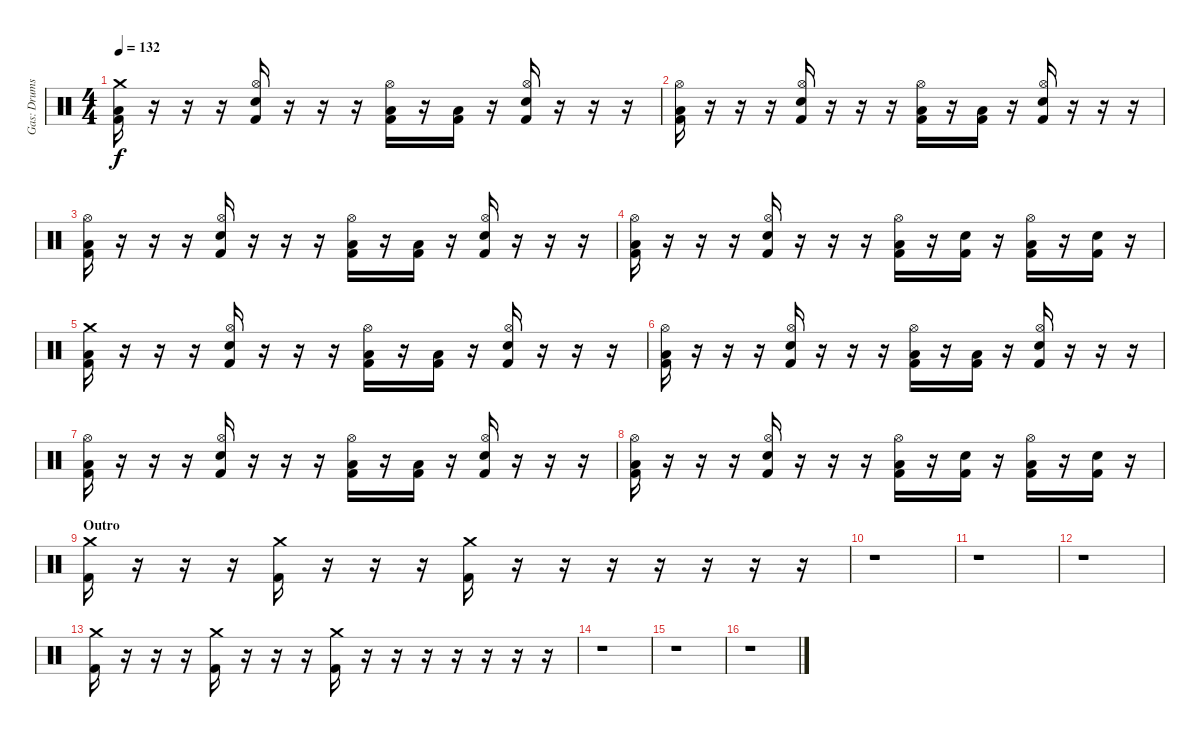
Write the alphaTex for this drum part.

\track ("Gas: Drums" "Gas: Drums") {instrument percussion}
\staff {score}
\articulation defaults
\ts (4 4)
\tempo 132
\clef neutral
\ks c
("Crash medium (hit)" "Low Tom (hit)" "Kick (hit) 2").16{dy f} r.16 r.16 r.16 ("Hi-Hat (open)" "Electric Snare (hit)" "Kick (hit) 2").16 r.16 r.16 r.16 ("Hi-Hat (open)" "Low Tom (hit)" "Kick (hit) 2").16 r.16 ("Low Tom (hit)" "Kick (hit) 2").16 r.16 ("Hi-Hat (open)" "Electric Snare (hit)" "Kick (hit) 2").16 r.16 r.16 r.16 |
("Hi-Hat (open)" "Low Tom (hit)" "Kick (hit) 2").16 r.16 r.16 r.16 ("Hi-Hat (open)" "Electric Snare (hit)" "Kick (hit) 2").16 r.16 r.16 r.16 ("Hi-Hat (open)" "Low Tom (hit)" "Kick (hit) 2").16 r.16 ("Low Tom (hit)" "Kick (hit) 2").16 r.16 ("Hi-Hat (open)" "Electric Snare (hit)" "Kick (hit) 2").16 r.16 r.16 r.16 |
("Hi-Hat (open)" "Low Tom (hit)" "Kick (hit) 2").16 r.16 r.16 r.16 ("Hi-Hat (open)" "Electric Snare (hit)" "Kick (hit) 2").16 r.16 r.16 r.16 ("Hi-Hat (open)" "Low Tom (hit)" "Kick (hit) 2").16 r.16 ("Low Tom (hit)" "Kick (hit) 2").16 r.16 ("Hi-Hat (open)" "Electric Snare (hit)" "Kick (hit) 2").16 r.16 r.16 r.16 |
("Hi-Hat (open)" "Low Tom (hit)" "Kick (hit) 2").16 r.16 r.16 r.16 ("Hi-Hat (open)" "Electric Snare (hit)" "Kick (hit) 2").16 r.16 r.16 r.16 ("Hi-Hat (open)" "Low Tom (hit)" "Kick (hit) 2").16 r.16 ("Electric Snare (hit)" "Kick (hit) 2").16 r.16 ("Hi-Hat (open)" "Low Tom (hit)" "Kick (hit) 2").16 r.16 ("Electric Snare (hit)" "Kick (hit) 2").16 r.16 |
("Crash medium (hit)" "Low Tom (hit)" "Kick (hit) 2").16 r.16 r.16 r.16 ("Hi-Hat (open)" "Electric Snare (hit)" "Kick (hit) 2").16 r.16 r.16 r.16 ("Hi-Hat (open)" "Low Tom (hit)" "Kick (hit) 2").16 r.16 ("Low Tom (hit)" "Kick (hit) 2").16 r.16 ("Hi-Hat (open)" "Electric Snare (hit)" "Kick (hit) 2").16 r.16 r.16 r.16 |
("Hi-Hat (open)" "Low Tom (hit)" "Kick (hit) 2").16 r.16 r.16 r.16 ("Hi-Hat (open)" "Electric Snare (hit)" "Kick (hit) 2").16 r.16 r.16 r.16 ("Hi-Hat (open)" "Low Tom (hit)" "Kick (hit) 2").16 r.16 ("Low Tom (hit)" "Kick (hit) 2").16 r.16 ("Hi-Hat (open)" "Electric Snare (hit)" "Kick (hit) 2").16 r.16 r.16 r.16 |
("Hi-Hat (open)" "Low Tom (hit)" "Kick (hit) 2").16 r.16 r.16 r.16 ("Hi-Hat (open)" "Electric Snare (hit)" "Kick (hit) 2").16 r.16 r.16 r.16 ("Hi-Hat (open)" "Low Tom (hit)" "Kick (hit) 2").16 r.16 ("Low Tom (hit)" "Kick (hit) 2").16 r.16 ("Hi-Hat (open)" "Electric Snare (hit)" "Kick (hit) 2").16 r.16 r.16 r.16 |
("Hi-Hat (open)" "Low Tom (hit)" "Kick (hit) 2").16 r.16 r.16 r.16 ("Hi-Hat (open)" "Electric Snare (hit)" "Kick (hit) 2").16 r.16 r.16 r.16 ("Hi-Hat (open)" "Low Tom (hit)" "Kick (hit) 2").16 r.16 ("Electric Snare (hit)" "Kick (hit) 2").16 r.16 ("Hi-Hat (open)" "Low Tom (hit)" "Kick (hit) 2").16 r.16 ("Electric Snare (hit)" "Kick (hit) 2").16 r.16 |
\section ("" "Outro")
("Crash medium (hit)" "Kick (hit) 2").16 r.16 r.16 r.16 ("Crash medium (hit)" "Kick (hit) 2").16 r.16 r.16 r.16 ("Crash medium (hit)" "Kick (hit) 2").16 r.16 r.16 r.16 r.16 r.16 r.16 r.16 |
r.1 |
r.1 |
r.1 |
("Crash medium (hit)" "Kick (hit) 2").16 r.16 r.16 r.16 ("Crash medium (hit)" "Kick (hit) 2").16 r.16 r.16 r.16 ("Crash medium (hit)" "Kick (hit) 2").16 r.16 r.16 r.16 r.16 r.16 r.16 r.16 |
r.1 |
r.1 |
r.1
